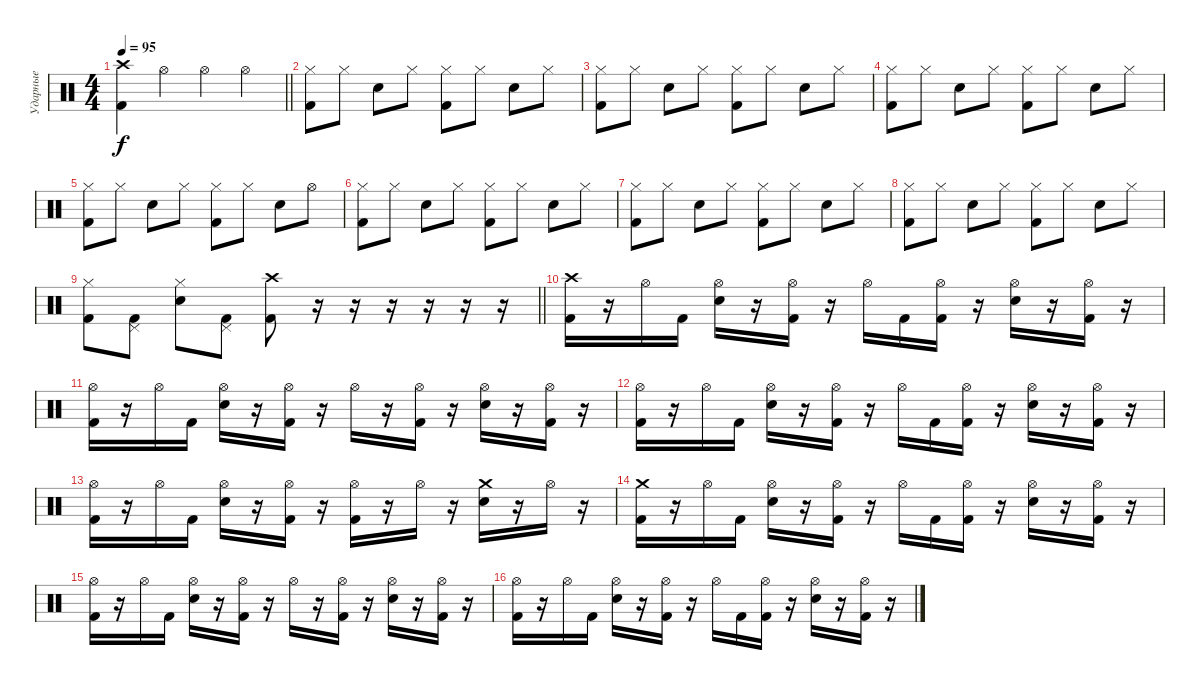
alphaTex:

\track ("Ударные" "Ударные") {instrument percussion}
\staff {score}
\articulation defaults
\ts (4 4)
\tempo 95
\clef neutral
\barLineRight lightlight
\ks c
("Crash high (hit)" "Kick (hit) 2").4{dy f} "Hi-Hat (open)".4 "Hi-Hat (open)".4 "Hi-Hat (open)".4 |
\section ("" "")
("Hi-Hat (closed)" "Kick (hit) 2").8 "Hi-Hat (closed)".8 "Electric Snare (hit)".8 "Hi-Hat (closed)".8 ("Hi-Hat (closed)" "Kick (hit) 2").8 "Hi-Hat (closed)".8 "Electric Snare (hit)".8 "Hi-Hat (closed)".8 |
("Hi-Hat (closed)" "Kick (hit) 2").8 "Hi-Hat (closed)".8 "Electric Snare (hit)".8 "Hi-Hat (closed)".8 ("Hi-Hat (closed)" "Kick (hit) 2").8 "Hi-Hat (closed)".8 "Electric Snare (hit)".8 "Hi-Hat (closed)".8 |
("Hi-Hat (closed)" "Kick (hit) 2").8 "Hi-Hat (closed)".8 "Electric Snare (hit)".8 "Hi-Hat (closed)".8 ("Hi-Hat (closed)" "Kick (hit) 2").8 "Hi-Hat (closed)".8 "Electric Snare (hit)".8 "Hi-Hat (closed)".8 |
("Hi-Hat (closed)" "Kick (hit) 2").8 "Hi-Hat (closed)".8 "Electric Snare (hit)".8 "Hi-Hat (closed)".8 ("Hi-Hat (closed)" "Kick (hit) 2").8 "Hi-Hat (closed)".8 "Electric Snare (hit)".8 "Hi-Hat (open)".8 |
("Hi-Hat (closed)" "Kick (hit) 2").8 "Hi-Hat (closed)".8 "Electric Snare (hit)".8 "Hi-Hat (closed)".8 ("Hi-Hat (closed)" "Kick (hit) 2").8 "Hi-Hat (closed)".8 "Electric Snare (hit)".8 "Hi-Hat (closed)".8 |
("Hi-Hat (closed)" "Kick (hit) 2").8 "Hi-Hat (closed)".8 "Electric Snare (hit)".8 "Hi-Hat (closed)".8 ("Hi-Hat (closed)" "Kick (hit) 2").8 "Hi-Hat (closed)".8 "Electric Snare (hit)".8 "Hi-Hat (closed)".8 |
("Hi-Hat (closed)" "Kick (hit) 2").8 "Hi-Hat (closed)".8 "Electric Snare (hit)".8 "Hi-Hat (closed)".8 ("Hi-Hat (closed)" "Kick (hit) 2").8 "Hi-Hat (closed)".8 "Electric Snare (hit)".8 "Hi-Hat (closed)".8 |
\barLineRight lightlight
("Hi-Hat (closed)" "Kick (hit) 2").8 ("Pedal Hi-Hat (hit)" "Kick (hit) 2").8 ("Hi-Hat (closed)" "Electric Snare (hit)").8 ("Pedal Hi-Hat (hit)" "Kick (hit) 2").8 ("Crash high (hit)" "Kick (hit) 2").8 r.16 r.16 r.16 r.16 r.16 r.16 |
\section ("" "")
("Crash high (hit)" "Kick (hit) 2").16 r.16 "Hi-Hat (open)".16 "Kick (hit) 2".16 ("Hi-Hat (open)" "Electric Snare (hit)").16 r.16 ("Hi-Hat (open)" "Kick (hit) 2").16 r.16 "Hi-Hat (open)".16 "Kick (hit) 2".16 ("Hi-Hat (open)" "Kick (hit) 2").16 r.16 ("Hi-Hat (open)" "Electric Snare (hit)").16 r.16 ("Hi-Hat (open)" "Kick (hit) 2").16 r.16 |
("Hi-Hat (open)" "Kick (hit) 2").16 r.16 "Hi-Hat (open)".16 "Kick (hit) 2".16 ("Hi-Hat (open)" "Electric Snare (hit)").16 r.16 ("Hi-Hat (open)" "Kick (hit) 2").16 r.16 "Hi-Hat (open)".16 r.16 ("Hi-Hat (open)" "Kick (hit) 2").16 r.16 ("Hi-Hat (open)" "Electric Snare (hit)").16 r.16 ("Hi-Hat (open)" "Kick (hit) 2").16 r.16 |
("Hi-Hat (open)" "Kick (hit) 2").16 r.16 "Hi-Hat (open)".16 "Kick (hit) 2".16 ("Hi-Hat (open)" "Electric Snare (hit)").16 r.16 ("Hi-Hat (open)" "Kick (hit) 2").16 r.16 "Hi-Hat (open)".16 "Kick (hit) 2".16 ("Hi-Hat (open)" "Kick (hit) 2").16 r.16 ("Hi-Hat (open)" "Electric Snare (hit)").16 r.16 ("Hi-Hat (open)" "Kick (hit) 2").16 r.16 |
("Hi-Hat (open)" "Kick (hit) 2").16 r.16 "Hi-Hat (open)".16 "Kick (hit) 2".16 ("Hi-Hat (open)" "Electric Snare (hit)").16 r.16 ("Hi-Hat (open)" "Kick (hit) 2").16 r.16 ("Hi-Hat (open)" "Kick (hit) 2").16 r.16 "Hi-Hat (open)".16 r.16 ("Crash medium (hit)" "Electric Snare (hit)").16 r.16 "Hi-Hat (open)".16 r.16 |
("Crash medium (hit)" "Kick (hit) 2").16 r.16 "Hi-Hat (open)".16 "Kick (hit) 2".16 ("Hi-Hat (open)" "Electric Snare (hit)").16 r.16 ("Hi-Hat (open)" "Kick (hit) 2").16 r.16 "Hi-Hat (open)".16 "Kick (hit) 2".16 ("Hi-Hat (open)" "Kick (hit) 2").16 r.16 ("Hi-Hat (open)" "Electric Snare (hit)").16 r.16 ("Hi-Hat (open)" "Kick (hit) 2").16 r.16 |
("Hi-Hat (open)" "Kick (hit) 2").16 r.16 "Hi-Hat (open)".16 "Kick (hit) 2".16 ("Hi-Hat (open)" "Electric Snare (hit)").16 r.16 ("Hi-Hat (open)" "Kick (hit) 2").16 r.16 "Hi-Hat (open)".16 r.16 ("Hi-Hat (open)" "Kick (hit) 2").16 r.16 ("Hi-Hat (open)" "Electric Snare (hit)").16 r.16 ("Hi-Hat (open)" "Kick (hit) 2").16 r.16 |
("Hi-Hat (open)" "Kick (hit) 2").16 r.16 "Hi-Hat (open)".16 "Kick (hit) 2".16 ("Hi-Hat (open)" "Electric Snare (hit)").16 r.16 ("Hi-Hat (open)" "Kick (hit) 2").16 r.16 "Hi-Hat (open)".16 "Kick (hit) 2".16 ("Hi-Hat (open)" "Kick (hit) 2").16 r.16 ("Hi-Hat (open)" "Electric Snare (hit)").16 r.16 ("Hi-Hat (open)" "Kick (hit) 2").16 r.16
